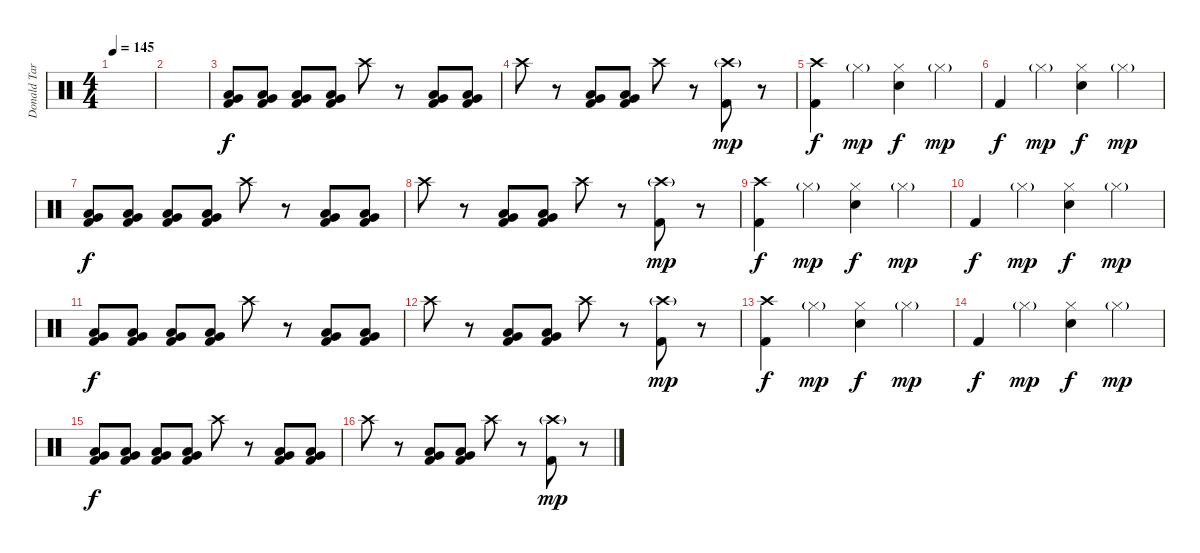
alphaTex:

\track ("Donald Tardy" "Donald Tar") {instrument percussion}
\staff {score}
\articulation defaults
\ts (4 4)
\tempo 145
\clef neutral
\ks c
|
|
("Very Low Tom (hit)" "Low Floor Tom (hit)" "Kick (hit) 2").8 ("Very Low Tom (hit)" "Low Floor Tom (hit)" "Kick (hit) 2").8 ("Very Low Tom (hit)" "Low Floor Tom (hit)" "Kick (hit) 2").8 ("Very Low Tom (hit)" "Low Floor Tom (hit)" "Kick (hit) 2").8 "Crash high (hit)".8 r.8 ("Very Low Tom (hit)" "Low Floor Tom (hit)" "Kick (hit) 2").8 ("Very Low Tom (hit)" "Low Floor Tom (hit)" "Kick (hit) 2").8 |
"Crash high (hit)".8 r.8 ("Very Low Tom (hit)" "Low Floor Tom (hit)" "Kick (hit) 2").8 ("Very Low Tom (hit)" "Low Floor Tom (hit)" "Kick (hit) 2").8 "Crash high (hit)".8 r.8 ("Crash high (hit)"{g} "Kick (hit) 2").8{dy mp} r.8 |
("Crash high (hit)" "Kick (hit) 2").4{dy f} "Hi-Hat (closed)"{g}.4{dy mp} ("Hi-Hat (closed)" "Electric Snare (hit)").4{dy f} "Hi-Hat (closed)"{g}.4{dy mp} |
"Kick (hit) 2".4{dy f} "Hi-Hat (closed)"{g}.4{dy mp} ("Hi-Hat (closed)" "Electric Snare (hit)").4{dy f} "Hi-Hat (closed)"{g}.4{dy mp} |
("Very Low Tom (hit)" "Low Floor Tom (hit)" "Kick (hit) 2").8{dy f} ("Very Low Tom (hit)" "Low Floor Tom (hit)" "Kick (hit) 2").8 ("Very Low Tom (hit)" "Low Floor Tom (hit)" "Kick (hit) 2").8 ("Very Low Tom (hit)" "Low Floor Tom (hit)" "Kick (hit) 2").8 "Crash high (hit)".8 r.8 ("Very Low Tom (hit)" "Low Floor Tom (hit)" "Kick (hit) 2").8 ("Very Low Tom (hit)" "Low Floor Tom (hit)" "Kick (hit) 2").8 |
"Crash high (hit)".8 r.8 ("Very Low Tom (hit)" "Low Floor Tom (hit)" "Kick (hit) 2").8 ("Very Low Tom (hit)" "Low Floor Tom (hit)" "Kick (hit) 2").8 "Crash high (hit)".8 r.8 ("Crash high (hit)"{g} "Kick (hit) 2").8{dy mp} r.8 |
("Crash high (hit)" "Kick (hit) 2").4{dy f} "Hi-Hat (closed)"{g}.4{dy mp} ("Hi-Hat (closed)" "Electric Snare (hit)").4{dy f} "Hi-Hat (closed)"{g}.4{dy mp} |
"Kick (hit) 2".4{dy f} "Hi-Hat (closed)"{g}.4{dy mp} ("Hi-Hat (closed)" "Electric Snare (hit)").4{dy f} "Hi-Hat (closed)"{g}.4{dy mp} |
("Very Low Tom (hit)" "Low Floor Tom (hit)" "Kick (hit) 2").8{dy f} ("Very Low Tom (hit)" "Low Floor Tom (hit)" "Kick (hit) 2").8 ("Very Low Tom (hit)" "Low Floor Tom (hit)" "Kick (hit) 2").8 ("Very Low Tom (hit)" "Low Floor Tom (hit)" "Kick (hit) 2").8 "Crash high (hit)".8 r.8 ("Very Low Tom (hit)" "Low Floor Tom (hit)" "Kick (hit) 2").8 ("Very Low Tom (hit)" "Low Floor Tom (hit)" "Kick (hit) 2").8 |
"Crash high (hit)".8 r.8 ("Very Low Tom (hit)" "Low Floor Tom (hit)" "Kick (hit) 2").8 ("Very Low Tom (hit)" "Low Floor Tom (hit)" "Kick (hit) 2").8 "Crash high (hit)".8 r.8 ("Crash high (hit)"{g} "Kick (hit) 2").8{dy mp} r.8 |
("Crash high (hit)" "Kick (hit) 2").4{dy f} "Hi-Hat (closed)"{g}.4{dy mp} ("Hi-Hat (closed)" "Electric Snare (hit)").4{dy f} "Hi-Hat (closed)"{g}.4{dy mp} |
"Kick (hit) 2".4{dy f} "Hi-Hat (closed)"{g}.4{dy mp} ("Hi-Hat (closed)" "Electric Snare (hit)").4{dy f} "Hi-Hat (closed)"{g}.4{dy mp} |
("Very Low Tom (hit)" "Low Floor Tom (hit)" "Kick (hit) 2").8{dy f} ("Very Low Tom (hit)" "Low Floor Tom (hit)" "Kick (hit) 2").8 ("Very Low Tom (hit)" "Low Floor Tom (hit)" "Kick (hit) 2").8 ("Very Low Tom (hit)" "Low Floor Tom (hit)" "Kick (hit) 2").8 "Crash high (hit)".8 r.8 ("Very Low Tom (hit)" "Low Floor Tom (hit)" "Kick (hit) 2").8 ("Very Low Tom (hit)" "Low Floor Tom (hit)" "Kick (hit) 2").8 |
"Crash high (hit)".8 r.8 ("Very Low Tom (hit)" "Low Floor Tom (hit)" "Kick (hit) 2").8 ("Very Low Tom (hit)" "Low Floor Tom (hit)" "Kick (hit) 2").8 "Crash high (hit)".8 r.8 ("Crash high (hit)"{g} "Kick (hit) 2").8{dy mp} r.8
